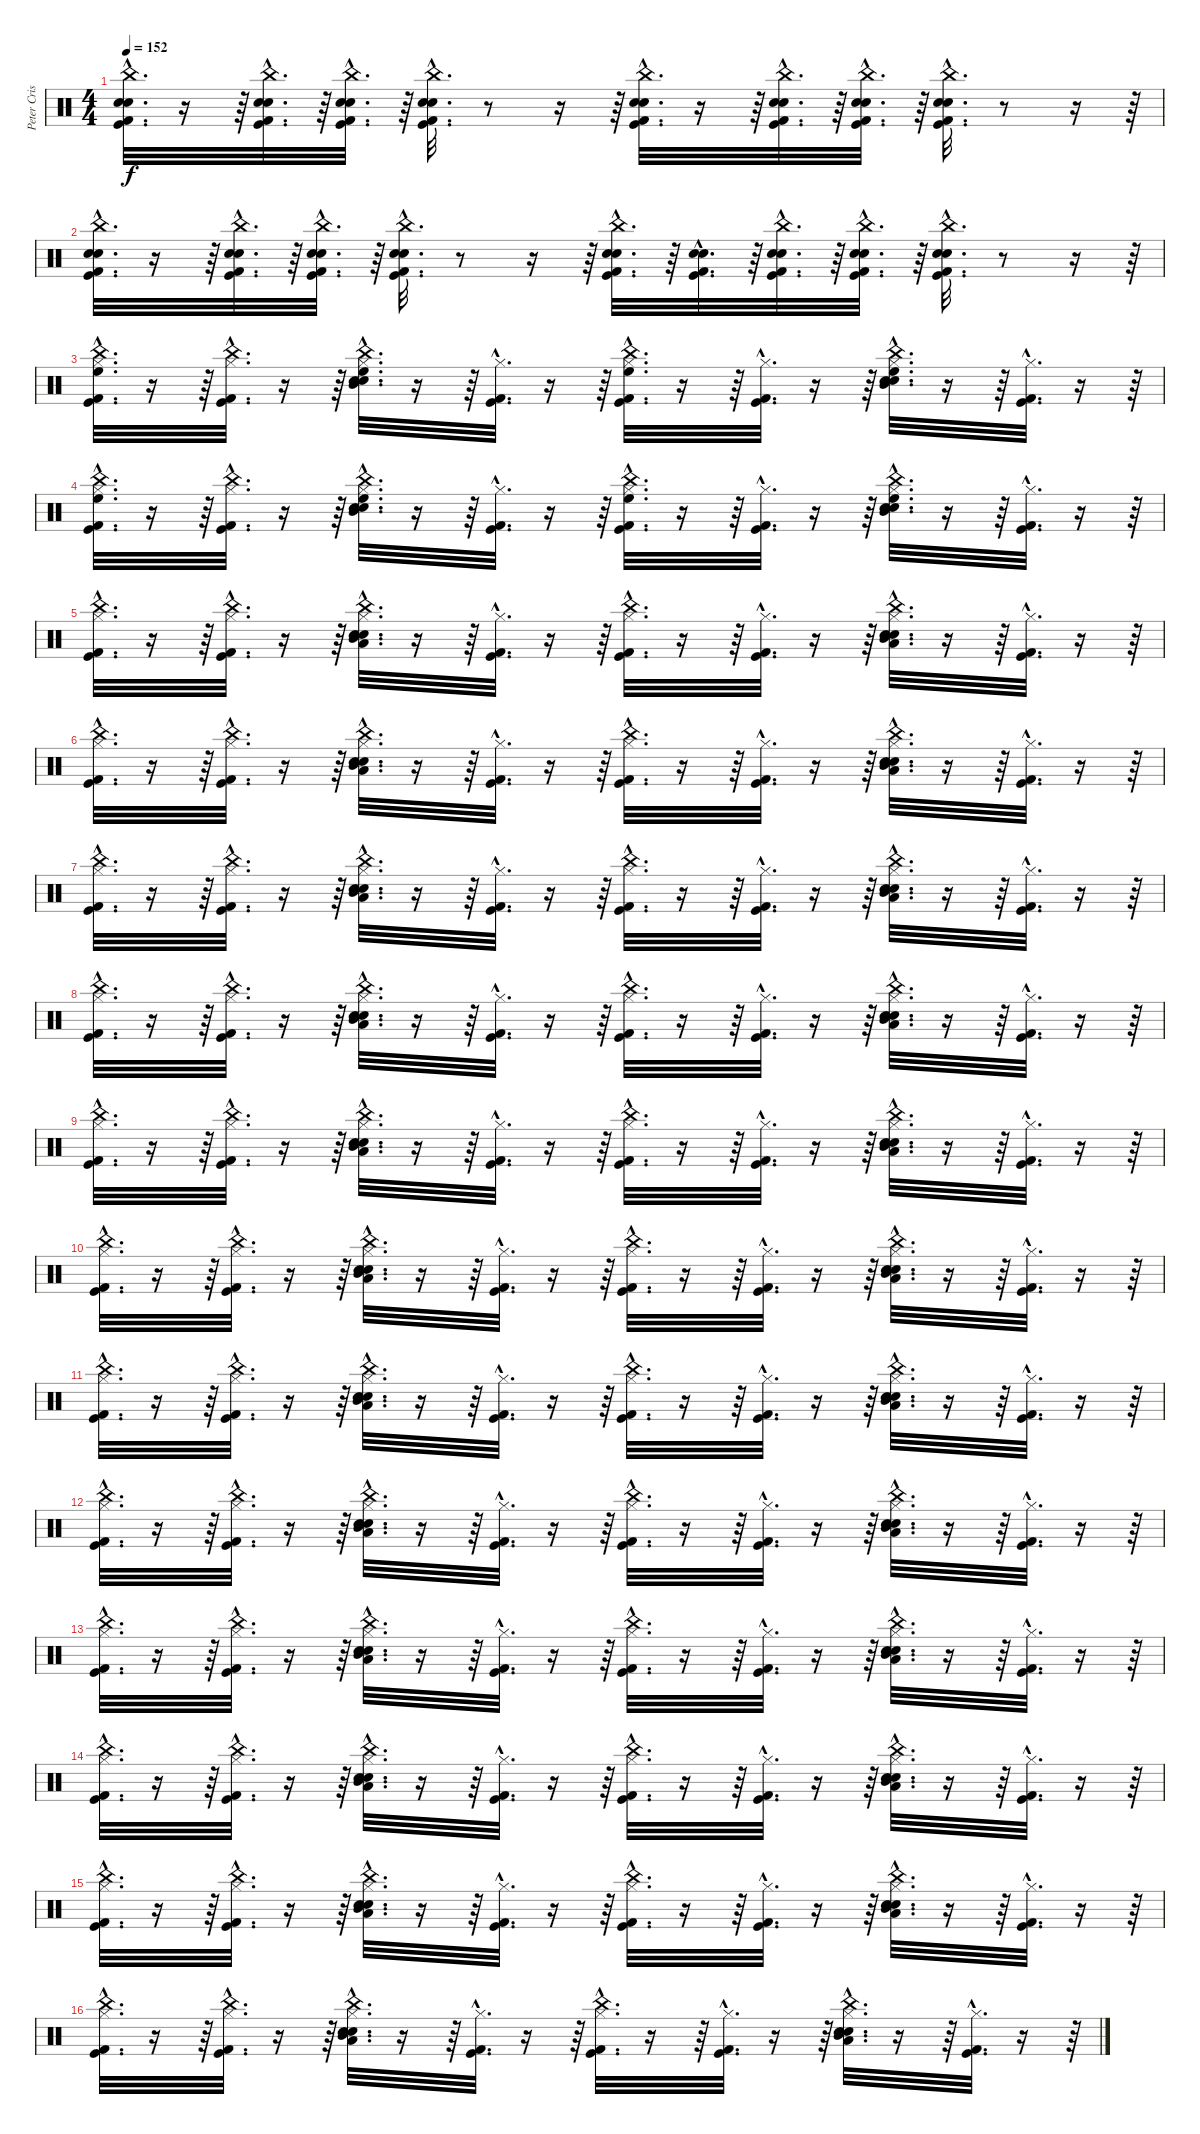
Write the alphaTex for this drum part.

\track ("Peter Criss" "Peter Cris") {instrument percussion}
\staff {score}
\articulation defaults
\ts (4 4)
\tempo 152
\clef neutral
\ks c
("Electric Snare (hit)"{hac} "Snare (hit) 2"{hac} "Kick (hit) 2"{hac} "Kick (hit)"{hac} "China (hit)"{hac}).32{d dy f} r.16 r.64 ("Electric Snare (hit)"{hac} "Snare (hit) 2"{hac} "Kick (hit) 2"{hac} "Kick (hit)"{hac} "China (hit)"{hac}).32{d} r.64 ("Electric Snare (hit)"{hac} "Snare (hit) 2"{hac} "Kick (hit) 2"{hac} "Kick (hit)"{hac} "China (hit)"{hac}).32{d} r.64 ("Electric Snare (hit)"{hac} "Snare (hit) 2"{hac} "Kick (hit) 2"{hac} "Kick (hit)"{hac} "China (hit)"{hac}).32{d} r.8 r.16 r.64 ("Electric Snare (hit)"{hac} "Snare (hit) 2"{hac} "Kick (hit) 2"{hac} "Kick (hit)"{hac} "China (hit)"{hac}).32{d} r.16 r.64 ("Electric Snare (hit)"{hac} "Snare (hit) 2"{hac} "Kick (hit) 2"{hac} "Kick (hit)"{hac} "China (hit)"{hac}).32{d} r.64 ("Electric Snare (hit)"{hac} "Snare (hit) 2"{hac} "Kick (hit) 2"{hac} "Kick (hit)"{hac} "China (hit)"{hac}).32{d} r.64 ("Electric Snare (hit)"{hac} "Snare (hit) 2"{hac} "Kick (hit) 2"{hac} "Kick (hit)"{hac} "China (hit)"{hac}).32{d} r.8 r.16 r.64 |
("Electric Snare (hit)"{hac} "Snare (hit) 2"{hac} "Kick (hit) 2"{hac} "Kick (hit)"{hac} "China (hit)"{hac}).32{d} r.16 r.64 ("Electric Snare (hit)"{hac} "Snare (hit) 2"{hac} "Kick (hit) 2"{hac} "Kick (hit)"{hac} "China (hit)"{hac}).32{d} r.64 ("Electric Snare (hit)"{hac} "Snare (hit) 2"{hac} "Kick (hit) 2"{hac} "Kick (hit)"{hac} "China (hit)"{hac}).32{d} r.64 ("Electric Snare (hit)"{hac} "Snare (hit) 2"{hac} "Kick (hit) 2"{hac} "Kick (hit)"{hac} "China (hit)"{hac}).32{d} r.8 r.16 r.64 ("Electric Snare (hit)"{hac} "Snare (hit) 2"{hac} "Kick (hit) 2"{hac} "Kick (hit)"{hac} "China (hit)"{hac}).32{d} r.64 ("Electric Snare (hit)"{hac} "Snare (hit) 2"{hac} "Kick (hit) 2"{hac} "Kick (hit)"{hac}).32{d} r.64 ("Electric Snare (hit)"{hac} "Snare (hit) 2"{hac} "Kick (hit) 2"{hac} "Kick (hit)"{hac} "China (hit)"{hac}).32{d} r.64 ("Electric Snare (hit)"{hac} "Snare (hit) 2"{hac} "Kick (hit) 2"{hac} "Kick (hit)"{hac} "China (hit)"{hac}).32{d} r.64 ("Electric Snare (hit)"{hac} "Snare (hit) 2"{hac} "Kick (hit) 2"{hac} "Kick (hit)"{hac} "China (hit)"{hac}).32{d} r.8 r.16 r.64 |
("China (hit)"{hac} "Kick (hit) 2"{hac} "Kick (hit)"{hac} "Hi-Hat (closed)"{hac} "High Floor Tom (hit)"{hac}).32{d} r.16 r.64 ("Kick (hit)"{hac} "Kick (hit) 2"{hac} "China (hit)"{hac} "Hi-Hat (closed)"{hac}).32{d} r.16 r.64 ("China (hit)"{hac} "Electric Snare (hit)"{hac} "Snare (hit) 2"{hac} "Hi-Hat (closed)"{hac} "Mid Tom (hit)"{hac} "High Floor Tom (hit)"{hac}).32{d} r.16 r.64 ("Kick (hit) 2"{hac} "Kick (hit)"{hac} "Hi-Hat (closed)"{hac}).32{d} r.16 r.64 ("China (hit)"{hac} "Kick (hit)"{hac} "Kick (hit) 2"{hac} "Hi-Hat (closed)"{hac} "High Floor Tom (hit)"{hac}).32{d} r.16 r.64 ("Kick (hit) 2"{hac} "Kick (hit)"{hac} "Hi-Hat (closed)"{hac}).32{d} r.16 r.64 ("China (hit)"{hac} "Electric Snare (hit)"{hac} "Snare (hit) 2"{hac} "Hi-Hat (closed)"{hac} "Mid Tom (hit)"{hac} "High Floor Tom (hit)"{hac}).32{d} r.16 r.64 ("Kick (hit) 2"{hac} "Kick (hit)"{hac} "Hi-Hat (closed)"{hac}).32{d} r.16 r.64 |
("China (hit)"{hac} "Kick (hit) 2"{hac} "Kick (hit)"{hac} "Hi-Hat (closed)"{hac} "High Floor Tom (hit)"{hac}).32{d} r.16 r.64 ("Kick (hit)"{hac} "Kick (hit) 2"{hac} "China (hit)"{hac} "Hi-Hat (closed)"{hac}).32{d} r.16 r.64 ("China (hit)"{hac} "Electric Snare (hit)"{hac} "Snare (hit) 2"{hac} "Hi-Hat (closed)"{hac} "Mid Tom (hit)"{hac} "High Floor Tom (hit)"{hac}).32{d} r.16 r.64 ("Kick (hit) 2"{hac} "Kick (hit)"{hac} "Hi-Hat (closed)"{hac}).32{d} r.16 r.64 ("China (hit)"{hac} "Kick (hit)"{hac} "Kick (hit) 2"{hac} "Hi-Hat (closed)"{hac} "High Floor Tom (hit)"{hac}).32{d} r.16 r.64 ("Kick (hit) 2"{hac} "Kick (hit)"{hac} "Hi-Hat (closed)"{hac}).32{d} r.16 r.64 ("China (hit)"{hac} "Electric Snare (hit)"{hac} "Snare (hit) 2"{hac} "Hi-Hat (closed)"{hac} "Mid Tom (hit)"{hac} "High Floor Tom (hit)"{hac}).32{d} r.16 r.64 ("Kick (hit) 2"{hac} "Kick (hit)"{hac} "Hi-Hat (closed)"{hac}).32{d} r.16 r.64 |
("China (hit)"{hac} "Kick (hit) 2"{hac} "Kick (hit)"{hac} "Hi-Hat (closed)"{hac}).32{d} r.16 r.64 ("Kick (hit)"{hac} "Kick (hit) 2"{hac} "China (hit)"{hac} "Hi-Hat (closed)"{hac}).32{d} r.16 r.64 ("China (hit)"{hac} "Electric Snare (hit)"{hac} "Snare (hit) 2"{hac} "Hi-Hat (closed)"{hac} "Mid Tom (hit)"{hac} "Low Tom (hit)"{hac}).32{d} r.16 r.64 ("Kick (hit) 2"{hac} "Kick (hit)"{hac} "Hi-Hat (closed)"{hac}).32{d} r.16 r.64 ("China (hit)"{hac} "Kick (hit)"{hac} "Kick (hit) 2"{hac} "Hi-Hat (closed)"{hac}).32{d} r.16 r.64 ("Kick (hit) 2"{hac} "Kick (hit)"{hac} "Hi-Hat (closed)"{hac}).32{d} r.16 r.64 ("China (hit)"{hac} "Electric Snare (hit)"{hac} "Snare (hit) 2"{hac} "Hi-Hat (closed)"{hac} "Mid Tom (hit)"{hac} "Low Tom (hit)"{hac}).32{d} r.16 r.64 ("Kick (hit) 2"{hac} "Kick (hit)"{hac} "Hi-Hat (closed)"{hac}).32{d} r.16 r.64 |
("China (hit)"{hac} "Kick (hit) 2"{hac} "Kick (hit)"{hac} "Hi-Hat (closed)"{hac}).32{d} r.16 r.64 ("Kick (hit)"{hac} "Kick (hit) 2"{hac} "China (hit)"{hac} "Hi-Hat (closed)"{hac}).32{d} r.16 r.64 ("China (hit)"{hac} "Electric Snare (hit)"{hac} "Snare (hit) 2"{hac} "Hi-Hat (closed)"{hac} "Mid Tom (hit)"{hac} "Low Tom (hit)"{hac}).32{d} r.16 r.64 ("Kick (hit) 2"{hac} "Kick (hit)"{hac} "Hi-Hat (closed)"{hac}).32{d} r.16 r.64 ("China (hit)"{hac} "Kick (hit)"{hac} "Kick (hit) 2"{hac} "Hi-Hat (closed)"{hac}).32{d} r.16 r.64 ("Kick (hit) 2"{hac} "Kick (hit)"{hac} "Hi-Hat (closed)"{hac}).32{d} r.16 r.64 ("China (hit)"{hac} "Electric Snare (hit)"{hac} "Snare (hit) 2"{hac} "Hi-Hat (closed)"{hac} "Mid Tom (hit)"{hac} "Low Tom (hit)"{hac}).32{d} r.16 r.64 ("Kick (hit) 2"{hac} "Kick (hit)"{hac} "Hi-Hat (closed)"{hac}).32{d} r.16 r.64 |
("China (hit)"{hac} "Kick (hit) 2"{hac} "Kick (hit)"{hac} "Hi-Hat (closed)"{hac}).32{d} r.16 r.64 ("Kick (hit)"{hac} "Kick (hit) 2"{hac} "China (hit)"{hac} "Hi-Hat (closed)"{hac}).32{d} r.16 r.64 ("China (hit)"{hac} "Electric Snare (hit)"{hac} "Snare (hit) 2"{hac} "Hi-Hat (closed)"{hac} "Mid Tom (hit)"{hac} "Low Tom (hit)"{hac}).32{d} r.16 r.64 ("Kick (hit) 2"{hac} "Kick (hit)"{hac} "Hi-Hat (closed)"{hac}).32{d} r.16 r.64 ("China (hit)"{hac} "Kick (hit)"{hac} "Kick (hit) 2"{hac} "Hi-Hat (closed)"{hac}).32{d} r.16 r.64 ("Kick (hit) 2"{hac} "Kick (hit)"{hac} "Hi-Hat (closed)"{hac}).32{d} r.16 r.64 ("China (hit)"{hac} "Electric Snare (hit)"{hac} "Snare (hit) 2"{hac} "Hi-Hat (closed)"{hac} "Mid Tom (hit)"{hac} "Low Tom (hit)"{hac}).32{d} r.16 r.64 ("Kick (hit) 2"{hac} "Kick (hit)"{hac} "Hi-Hat (closed)"{hac}).32{d} r.16 r.64 |
("China (hit)"{hac} "Kick (hit) 2"{hac} "Kick (hit)"{hac} "Hi-Hat (closed)"{hac}).32{d} r.16 r.64 ("Kick (hit)"{hac} "Kick (hit) 2"{hac} "China (hit)"{hac} "Hi-Hat (closed)"{hac}).32{d} r.16 r.64 ("China (hit)"{hac} "Electric Snare (hit)"{hac} "Snare (hit) 2"{hac} "Hi-Hat (closed)"{hac} "Mid Tom (hit)"{hac} "Low Tom (hit)"{hac}).32{d} r.16 r.64 ("Kick (hit) 2"{hac} "Kick (hit)"{hac} "Hi-Hat (closed)"{hac}).32{d} r.16 r.64 ("China (hit)"{hac} "Kick (hit)"{hac} "Kick (hit) 2"{hac} "Hi-Hat (closed)"{hac}).32{d} r.16 r.64 ("Kick (hit) 2"{hac} "Kick (hit)"{hac} "Hi-Hat (closed)"{hac}).32{d} r.16 r.64 ("China (hit)"{hac} "Electric Snare (hit)"{hac} "Snare (hit) 2"{hac} "Hi-Hat (closed)"{hac} "Mid Tom (hit)"{hac} "Low Tom (hit)"{hac}).32{d} r.16 r.64 ("Kick (hit) 2"{hac} "Kick (hit)"{hac} "Hi-Hat (closed)"{hac}).32{d} r.16 r.64 |
("China (hit)"{hac} "Kick (hit) 2"{hac} "Kick (hit)"{hac} "Hi-Hat (closed)"{hac}).32{d} r.16 r.64 ("Kick (hit)"{hac} "Kick (hit) 2"{hac} "China (hit)"{hac} "Hi-Hat (closed)"{hac}).32{d} r.16 r.64 ("China (hit)"{hac} "Electric Snare (hit)"{hac} "Snare (hit) 2"{hac} "Hi-Hat (closed)"{hac} "Mid Tom (hit)"{hac} "Low Tom (hit)"{hac}).32{d} r.16 r.64 ("Kick (hit) 2"{hac} "Kick (hit)"{hac} "Hi-Hat (closed)"{hac}).32{d} r.16 r.64 ("China (hit)"{hac} "Kick (hit)"{hac} "Kick (hit) 2"{hac} "Hi-Hat (closed)"{hac}).32{d} r.16 r.64 ("Kick (hit) 2"{hac} "Kick (hit)"{hac} "Hi-Hat (closed)"{hac}).32{d} r.16 r.64 ("China (hit)"{hac} "Electric Snare (hit)"{hac} "Snare (hit) 2"{hac} "Hi-Hat (closed)"{hac} "Mid Tom (hit)"{hac} "Low Tom (hit)"{hac}).32{d} r.16 r.64 ("Kick (hit) 2"{hac} "Kick (hit)"{hac} "Hi-Hat (closed)"{hac}).32{d} r.16 r.64 |
("China (hit)"{hac} "Kick (hit) 2"{hac} "Kick (hit)"{hac} "Hi-Hat (closed)"{hac}).32{d} r.16 r.64 ("Kick (hit)"{hac} "Kick (hit) 2"{hac} "China (hit)"{hac} "Hi-Hat (closed)"{hac}).32{d} r.16 r.64 ("China (hit)"{hac} "Electric Snare (hit)"{hac} "Snare (hit) 2"{hac} "Hi-Hat (closed)"{hac} "Mid Tom (hit)"{hac} "Low Tom (hit)"{hac}).32{d} r.16 r.64 ("Kick (hit) 2"{hac} "Kick (hit)"{hac} "Hi-Hat (closed)"{hac}).32{d} r.16 r.64 ("China (hit)"{hac} "Kick (hit)"{hac} "Kick (hit) 2"{hac} "Hi-Hat (closed)"{hac}).32{d} r.16 r.64 ("Kick (hit) 2"{hac} "Kick (hit)"{hac} "Hi-Hat (closed)"{hac}).32{d} r.16 r.64 ("China (hit)"{hac} "Electric Snare (hit)"{hac} "Snare (hit) 2"{hac} "Hi-Hat (closed)"{hac} "Mid Tom (hit)"{hac} "Low Tom (hit)"{hac}).32{d} r.16 r.64 ("Kick (hit) 2"{hac} "Kick (hit)"{hac} "Hi-Hat (closed)"{hac}).32{d} r.16 r.64 |
("China (hit)"{hac} "Kick (hit) 2"{hac} "Kick (hit)"{hac} "Hi-Hat (closed)"{hac}).32{d} r.16 r.64 ("Kick (hit) 2"{hac} "China (hit)"{hac} "Hi-Hat (closed)"{hac} "Kick (hit)"{hac}).32{d} r.16 r.64 ("China (hit)"{hac} "Electric Snare (hit)"{hac} "Snare (hit) 2"{hac} "Hi-Hat (closed)"{hac} "Mid Tom (hit)"{hac} "Low Tom (hit)"{hac}).32{d} r.16 r.64 ("Kick (hit) 2"{hac} "Kick (hit)"{hac} "Hi-Hat (closed)"{hac}).32{d} r.16 r.64 ("China (hit)"{hac} "Kick (hit)"{hac} "Kick (hit) 2"{hac} "Hi-Hat (closed)"{hac}).32{d} r.16 r.64 ("Kick (hit) 2"{hac} "Kick (hit)"{hac} "Hi-Hat (closed)"{hac}).32{d} r.16 r.64 ("China (hit)"{hac} "Electric Snare (hit)"{hac} "Snare (hit) 2"{hac} "Hi-Hat (closed)"{hac} "Mid Tom (hit)"{hac} "Low Tom (hit)"{hac}).32{d} r.16 r.64 ("Kick (hit) 2"{hac} "Kick (hit)"{hac} "Hi-Hat (closed)"{hac}).32{d} r.16 r.64 |
("China (hit)"{hac} "Kick (hit) 2"{hac} "Kick (hit)"{hac} "Hi-Hat (closed)"{hac}).32{d} r.16 r.64 ("Kick (hit)"{hac} "Kick (hit) 2"{hac} "China (hit)"{hac} "Hi-Hat (closed)"{hac}).32{d} r.16 r.64 ("China (hit)"{hac} "Electric Snare (hit)"{hac} "Snare (hit) 2"{hac} "Hi-Hat (closed)"{hac} "Mid Tom (hit)"{hac} "Low Tom (hit)"{hac}).32{d} r.16 r.64 ("Kick (hit) 2"{hac} "Kick (hit)"{hac} "Hi-Hat (closed)"{hac}).32{d} r.16 r.64 ("China (hit)"{hac} "Kick (hit)"{hac} "Kick (hit) 2"{hac} "Hi-Hat (closed)"{hac}).32{d} r.16 r.64 ("Kick (hit) 2"{hac} "Kick (hit)"{hac} "Hi-Hat (closed)"{hac}).32{d} r.16 r.64 ("China (hit)"{hac} "Electric Snare (hit)"{hac} "Snare (hit) 2"{hac} "Hi-Hat (closed)"{hac} "Mid Tom (hit)"{hac} "Low Tom (hit)"{hac}).32{d} r.16 r.64 ("Kick (hit) 2"{hac} "Kick (hit)"{hac} "Hi-Hat (closed)"{hac}).32{d} r.16 r.64 |
("China (hit)"{hac} "Kick (hit) 2"{hac} "Kick (hit)"{hac} "Hi-Hat (closed)"{hac}).32{d} r.16 r.64 ("Kick (hit)"{hac} "Kick (hit) 2"{hac} "China (hit)"{hac} "Hi-Hat (closed)"{hac}).32{d} r.16 r.64 ("China (hit)"{hac} "Electric Snare (hit)"{hac} "Snare (hit) 2"{hac} "Hi-Hat (closed)"{hac} "Mid Tom (hit)"{hac} "Low Tom (hit)"{hac}).32{d} r.16 r.64 ("Kick (hit) 2"{hac} "Kick (hit)"{hac} "Hi-Hat (closed)"{hac}).32{d} r.16 r.64 ("China (hit)"{hac} "Kick (hit)"{hac} "Kick (hit) 2"{hac} "Hi-Hat (closed)"{hac}).32{d} r.16 r.64 ("Kick (hit) 2"{hac} "Kick (hit)"{hac} "Hi-Hat (closed)"{hac}).32{d} r.16 r.64 ("China (hit)"{hac} "Electric Snare (hit)"{hac} "Snare (hit) 2"{hac} "Hi-Hat (closed)"{hac} "Mid Tom (hit)"{hac} "Low Tom (hit)"{hac}).32{d} r.16 r.64 ("Kick (hit) 2"{hac} "Kick (hit)"{hac} "Hi-Hat (closed)"{hac}).32{d} r.16 r.64 |
("China (hit)"{hac} "Kick (hit) 2"{hac} "Kick (hit)"{hac} "Hi-Hat (closed)"{hac}).32{d} r.16 r.64 ("Kick (hit)"{hac} "Kick (hit) 2"{hac} "China (hit)"{hac} "Hi-Hat (closed)"{hac}).32{d} r.16 r.64 ("China (hit)"{hac} "Electric Snare (hit)"{hac} "Snare (hit) 2"{hac} "Hi-Hat (closed)"{hac} "Mid Tom (hit)"{hac} "Low Tom (hit)"{hac}).32{d} r.16 r.64 ("Kick (hit) 2"{hac} "Kick (hit)"{hac} "Hi-Hat (closed)"{hac}).32{d} r.16 r.64 ("China (hit)"{hac} "Kick (hit)"{hac} "Kick (hit) 2"{hac} "Hi-Hat (closed)"{hac}).32{d} r.16 r.64 ("Kick (hit) 2"{hac} "Kick (hit)"{hac} "Hi-Hat (closed)"{hac}).32{d} r.16 r.64 ("China (hit)"{hac} "Electric Snare (hit)"{hac} "Snare (hit) 2"{hac} "Hi-Hat (closed)"{hac} "Mid Tom (hit)"{hac} "Low Tom (hit)"{hac}).32{d} r.16 r.64 ("Kick (hit) 2"{hac} "Kick (hit)"{hac} "Hi-Hat (closed)"{hac}).32{d} r.16 r.64 |
("China (hit)"{hac} "Kick (hit) 2"{hac} "Kick (hit)"{hac} "Hi-Hat (closed)"{hac}).32{d} r.16 r.64 ("Kick (hit)"{hac} "Kick (hit) 2"{hac} "China (hit)"{hac} "Hi-Hat (closed)"{hac}).32{d} r.16 r.64 ("China (hit)"{hac} "Electric Snare (hit)"{hac} "Snare (hit) 2"{hac} "Hi-Hat (closed)"{hac} "Mid Tom (hit)"{hac} "Low Tom (hit)"{hac}).32{d} r.16 r.64 ("Kick (hit) 2"{hac} "Kick (hit)"{hac} "Hi-Hat (closed)"{hac}).32{d} r.16 r.64 ("China (hit)"{hac} "Kick (hit)"{hac} "Kick (hit) 2"{hac} "Hi-Hat (closed)"{hac}).32{d} r.16 r.64 ("Kick (hit) 2"{hac} "Kick (hit)"{hac} "Hi-Hat (closed)"{hac}).32{d} r.16 r.64 ("China (hit)"{hac} "Electric Snare (hit)"{hac} "Snare (hit) 2"{hac} "Hi-Hat (closed)"{hac} "Mid Tom (hit)"{hac} "Low Tom (hit)"{hac}).32{d} r.16 r.64 ("Kick (hit) 2"{hac} "Kick (hit)"{hac} "Hi-Hat (closed)"{hac}).32{d} r.16 r.64 |
("China (hit)"{hac} "Kick (hit) 2"{hac} "Kick (hit)"{hac} "Hi-Hat (closed)"{hac}).32{d} r.16 r.64 ("Kick (hit)"{hac} "Kick (hit) 2"{hac} "China (hit)"{hac} "Hi-Hat (closed)"{hac}).32{d} r.16 r.64 ("China (hit)"{hac} "Electric Snare (hit)"{hac} "Snare (hit) 2"{hac} "Hi-Hat (closed)"{hac} "Mid Tom (hit)"{hac} "Low Tom (hit)"{hac}).32{d} r.16 r.64 ("Kick (hit) 2"{hac} "Kick (hit)"{hac} "Hi-Hat (closed)"{hac}).32{d} r.16 r.64 ("China (hit)"{hac} "Kick (hit)"{hac} "Kick (hit) 2"{hac} "Hi-Hat (closed)"{hac}).32{d} r.16 r.64 ("Kick (hit) 2"{hac} "Kick (hit)"{hac} "Hi-Hat (closed)"{hac}).32{d} r.16 r.64 ("China (hit)"{hac} "Electric Snare (hit)"{hac} "Snare (hit) 2"{hac} "Hi-Hat (closed)"{hac} "Mid Tom (hit)"{hac} "Low Tom (hit)"{hac}).32{d} r.16 r.64 ("Kick (hit) 2"{hac} "Kick (hit)"{hac} "Hi-Hat (closed)"{hac}).32{d} r.16 r.64
